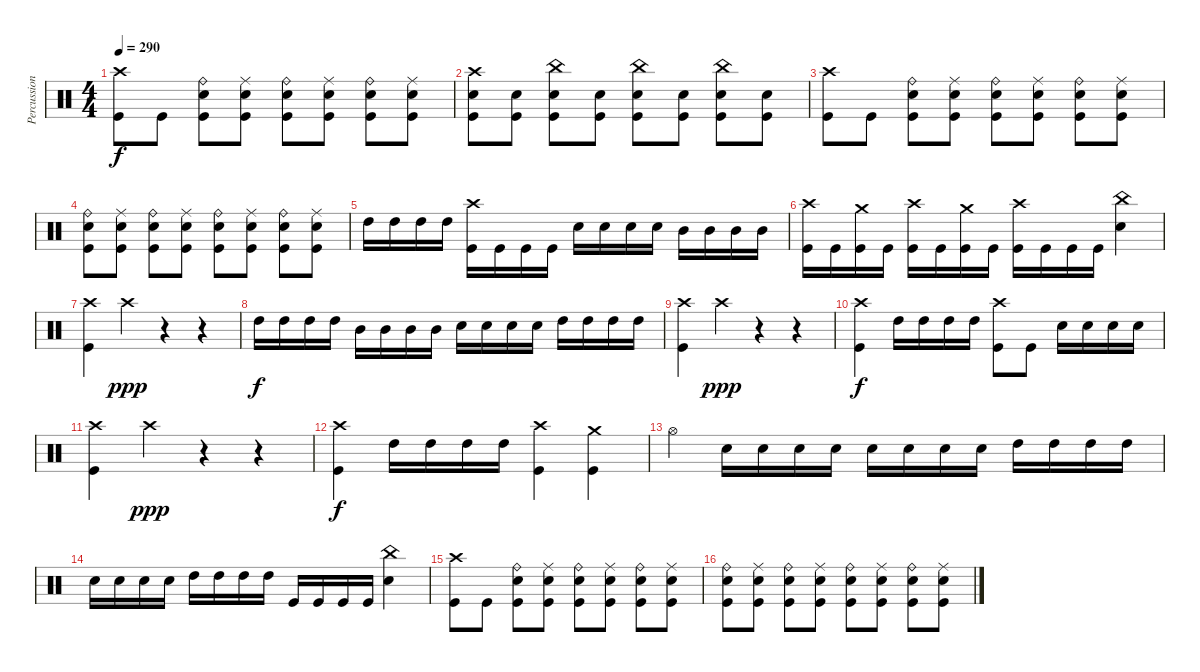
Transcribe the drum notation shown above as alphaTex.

\track ("Percussion" "Percussion") {instrument percussion}
\staff {score}
\articulation defaults
\ts (4 4)
\tempo 290
\clef neutral
\ks c
("Crash high (hit)" "Kick (hit)").8{dy f} "Kick (hit)".8 ("Electric Snare (hit)" "Ride (bell)" "Kick (hit)").8 ("Electric Snare (hit)" "Ride (middle)" "Kick (hit)").8 ("Electric Snare (hit)" "Ride (bell)" "Kick (hit)").8 ("Electric Snare (hit)" "Ride (middle)" "Kick (hit)").8 ("Electric Snare (hit)" "Ride (bell)" "Kick (hit)").8 ("Electric Snare (hit)" "Ride (middle)" "Kick (hit)").8 |
("Electric Snare (hit)" "Crash high (hit)" "Kick (hit)").8 ("Electric Snare (hit)" "Kick (hit)").8 ("Electric Snare (hit)" "China (hit)" "Kick (hit)").8 ("Electric Snare (hit)" "Kick (hit)").8 ("Electric Snare (hit)" "China (hit)" "Kick (hit)").8 ("Electric Snare (hit)" "Kick (hit)").8 ("Electric Snare (hit)" "China (hit)" "Kick (hit)").8 ("Electric Snare (hit)" "Kick (hit)").8 |
("Crash high (hit)" "Kick (hit)").8 "Kick (hit)".8 ("Electric Snare (hit)" "Ride (bell)" "Kick (hit)").8 ("Electric Snare (hit)" "Ride (middle)" "Kick (hit)").8 ("Electric Snare (hit)" "Ride (bell)" "Kick (hit)").8 ("Electric Snare (hit)" "Ride (middle)" "Kick (hit)").8 ("Electric Snare (hit)" "Ride (bell)" "Kick (hit)").8 ("Electric Snare (hit)" "Ride (middle)" "Kick (hit)").8 |
("Electric Snare (hit)" "Ride (bell)" "Kick (hit)").8 ("Electric Snare (hit)" "Ride (middle)" "Kick (hit)").8 ("Electric Snare (hit)" "Ride (bell)" "Kick (hit)").8 ("Electric Snare (hit)" "Ride (middle)" "Kick (hit)").8 ("Electric Snare (hit)" "Ride (bell)" "Kick (hit)").8 ("Electric Snare (hit)" "Ride (middle)" "Kick (hit)").8 ("Electric Snare (hit)" "Ride (bell)" "Kick (hit)").8 ("Electric Snare (hit)" "Ride (middle)" "Kick (hit)").8 |
"High Tom (hit)".16 "High Tom (hit)".16 "High Tom (hit)".16 "High Tom (hit)".16 ("Crash high (hit)" "Kick (hit)").16 "Kick (hit)".16 "Kick (hit)".16 "Kick (hit)".16 "Electric Snare (hit)".16 "Electric Snare (hit)".16 "Electric Snare (hit)".16 "Electric Snare (hit)".16 "Mid Tom (hit)".16 "Mid Tom (hit)".16 "Mid Tom (hit)".16 "Mid Tom (hit)".16 |
("Crash high (hit)" "Kick (hit)").16 "Kick (hit)".16 ("Kick (hit)" "Crash medium (hit)").16 "Kick (hit)".16 ("Kick (hit)" "Crash high (hit)").16 "Kick (hit)".16 ("Kick (hit)" "Crash medium (hit)").16 "Kick (hit)".16 ("Kick (hit)" "Crash high (hit)").16 "Kick (hit)".16 "Kick (hit)".16 "Kick (hit)".16 ("China (hit)" "Electric Snare (hit)").4 |
("Crash high (hit)" "Kick (hit)").4 "Crash high (hit)".4{dy ppp} r.4 r.4 |
"High Tom (hit)".16{dy f} "High Tom (hit)".16 "High Tom (hit)".16 "High Tom (hit)".16 "Mid Tom (hit)".16 "Mid Tom (hit)".16 "Mid Tom (hit)".16 "Mid Tom (hit)".16 "Electric Snare (hit)".16 "Electric Snare (hit)".16 "Electric Snare (hit)".16 "Electric Snare (hit)".16 "High Tom (hit)".16 "High Tom (hit)".16 "High Tom (hit)".16 "High Tom (hit)".16 |
("Crash high (hit)" "Kick (hit)").4 "Crash high (hit)".4{dy ppp} r.4 r.4 |
("Crash high (hit)" "Kick (hit)").4{dy f} "High Tom (hit)".16 "High Tom (hit)".16 "High Tom (hit)".16 "High Tom (hit)".16 ("Crash high (hit)" "Kick (hit)").8 "Kick (hit)".8 "Electric Snare (hit)".16 "Electric Snare (hit)".16 "Electric Snare (hit)".16 "Electric Snare (hit)".16 |
("Crash high (hit)" "Kick (hit)").4 "Crash high (hit)".4{dy ppp} r.4 r.4 |
("Crash high (hit)" "Kick (hit)").4{dy f} "High Tom (hit)".16 "High Tom (hit)".16 "High Tom (hit)".16 "High Tom (hit)".16 ("Crash high (hit)" "Kick (hit)").4 ("Kick (hit)" "Crash medium (hit)").4 |
"Hi-Hat (open)".4 "Electric Snare (hit)".16 "Electric Snare (hit)".16 "Electric Snare (hit)".16 "Electric Snare (hit)".16 "Electric Snare (hit)".16 "Electric Snare (hit)".16 "Electric Snare (hit)".16 "Electric Snare (hit)".16 "High Tom (hit)".16 "High Tom (hit)".16 "High Tom (hit)".16 "High Tom (hit)".16 |
"Electric Snare (hit)".16 "Electric Snare (hit)".16 "Electric Snare (hit)".16 "Electric Snare (hit)".16 "High Tom (hit)".16 "High Tom (hit)".16 "High Tom (hit)".16 "High Tom (hit)".16 "Kick (hit)".16 "Kick (hit)".16 "Kick (hit)".16 "Kick (hit)".16 ("China (hit)" "Electric Snare (hit)").4 |
("Crash high (hit)" "Kick (hit)").8 "Kick (hit)".8 ("Electric Snare (hit)" "Ride (bell)" "Kick (hit)").8 ("Electric Snare (hit)" "Ride (middle)" "Kick (hit)").8 ("Electric Snare (hit)" "Ride (bell)" "Kick (hit)").8 ("Electric Snare (hit)" "Ride (middle)" "Kick (hit)").8 ("Electric Snare (hit)" "Ride (bell)" "Kick (hit)").8 ("Electric Snare (hit)" "Ride (middle)" "Kick (hit)").8 |
("Electric Snare (hit)" "Ride (bell)" "Kick (hit)").8 ("Electric Snare (hit)" "Ride (middle)" "Kick (hit)").8 ("Electric Snare (hit)" "Ride (bell)" "Kick (hit)").8 ("Electric Snare (hit)" "Ride (middle)" "Kick (hit)").8 ("Electric Snare (hit)" "Ride (bell)" "Kick (hit)").8 ("Electric Snare (hit)" "Ride (middle)" "Kick (hit)").8 ("Electric Snare (hit)" "Ride (bell)" "Kick (hit)").8 ("Electric Snare (hit)" "Ride (middle)" "Kick (hit)").8
